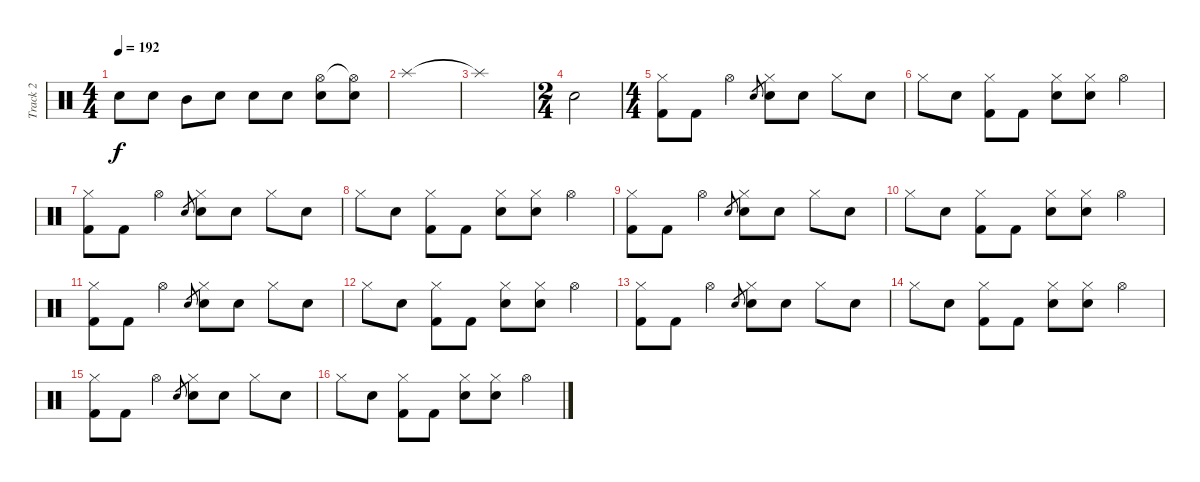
\track ("Track 2" "Track 2") {instrument percussion}
\staff {score}
\articulation defaults
\ts (4 4)
\tempo 192
\clef neutral
\ks c "Electric Snare (hit)".8{dy f} "Electric Snare (hit)".8 "Mid Tom (hit)".8 "Electric Snare (hit)".8 "Electric Snare (hit)".8 "Electric Snare (hit)".8
("Hi-Hat (open)" "Electric Snare (hit)").8 ("Hi-Hat (open)"{t} "Electric Snare (hit)").8 |
"Splash (hit)".1 |
"Splash (hit)"{t}.1 |
\ts (2 4)
"Electric Snare (hit)".2 |
\ts (4 4)
("Hi-Hat (closed)" "Kick (hit) 2").8 "Kick (hit) 2".8 "Hi-Hat (open)".4 "Electric Snare (hit)".8{gr} ("Hi-Hat (closed)" "Electric Snare (hit)").8 "Electric Snare (hit)".8 "Hi-Hat (closed)".8 "Electric Snare (hit)".8 |
"Hi-Hat (closed)".8 "Electric Snare (hit)".8 ("Hi-Hat (closed)" "Kick (hit) 2").8 "Kick (hit) 2".8 ("Hi-Hat (closed)" "Electric Snare (hit)").8 ("Hi-Hat (closed)" "Electric Snare (hit)").8 "Hi-Hat (open)".4 |
("Hi-Hat (closed)" "Kick (hit) 2").8 "Kick (hit) 2".8 "Hi-Hat (open)".4 "Electric Snare (hit)".8{gr} ("Hi-Hat (closed)" "Electric Snare (hit)").8 "Electric Snare (hit)".8 "Hi-Hat (closed)".8 "Electric Snare (hit)".8 |
"Hi-Hat (closed)".8 "Electric Snare (hit)".8 ("Hi-Hat (closed)" "Kick (hit) 2").8 "Kick (hit) 2".8 ("Hi-Hat (closed)" "Electric Snare (hit)").8 ("Hi-Hat (closed)" "Electric Snare (hit)").8 "Hi-Hat (open)".4 |
("Hi-Hat (closed)" "Kick (hit) 2").8 "Kick (hit) 2".8 "Hi-Hat (open)".4 "Electric Snare (hit)".8{gr} ("Hi-Hat (closed)" "Electric Snare (hit)").8 "Electric Snare (hit)".8 "Hi-Hat (closed)".8 "Electric Snare (hit)".8 |
"Hi-Hat (closed)".8 "Electric Snare (hit)".8 ("Hi-Hat (closed)" "Kick (hit) 2").8 "Kick (hit) 2".8 ("Hi-Hat (closed)" "Electric Snare (hit)").8 ("Hi-Hat (closed)" "Electric Snare (hit)").8 "Hi-Hat (open)".4 |
("Hi-Hat (closed)" "Kick (hit) 2").8 "Kick (hit) 2".8 "Hi-Hat (open)".4 "Electric Snare (hit)".8{gr} ("Hi-Hat (closed)" "Electric Snare (hit)").8 "Electric Snare (hit)".8 "Hi-Hat (closed)".8 "Electric Snare (hit)".8 |
"Hi-Hat (closed)".8 "Electric Snare (hit)".8 ("Hi-Hat (closed)" "Kick (hit) 2").8 "Kick (hit) 2".8 ("Hi-Hat (closed)" "Electric Snare (hit)").8 ("Hi-Hat (closed)" "Electric Snare (hit)").8 "Hi-Hat (open)".4 |
("Hi-Hat (closed)" "Kick (hit) 2").8 "Kick (hit) 2".8 "Hi-Hat (open)".4 "Electric Snare (hit)".8{gr} ("Hi-Hat (closed)" "Electric Snare (hit)").8 "Electric Snare (hit)".8 "Hi-Hat (closed)".8 "Electric Snare (hit)".8 |
"Hi-Hat (closed)".8 "Electric Snare (hit)".8 ("Hi-Hat (closed)" "Kick (hit) 2").8 "Kick (hit) 2".8 ("Hi-Hat (closed)" "Electric Snare (hit)").8 ("Hi-Hat (closed)" "Electric Snare (hit)").8 "Hi-Hat (open)".4 |
("Hi-Hat (closed)" "Kick (hit) 2").8 "Kick (hit) 2".8 "Hi-Hat (open)".4 "Electric Snare (hit)".8{gr} ("Hi-Hat (closed)" "Electric Snare (hit)").8 "Electric Snare (hit)".8 "Hi-Hat (closed)".8 "Electric Snare (hit)".8 |
"Hi-Hat (closed)".8 "Electric Snare (hit)".8 ("Hi-Hat (closed)" "Kick (hit) 2").8 "Kick (hit) 2".8 ("Hi-Hat (closed)" "Electric Snare (hit)").8 ("Hi-Hat (closed)" "Electric Snare (hit)").8 "Hi-Hat (open)".4
